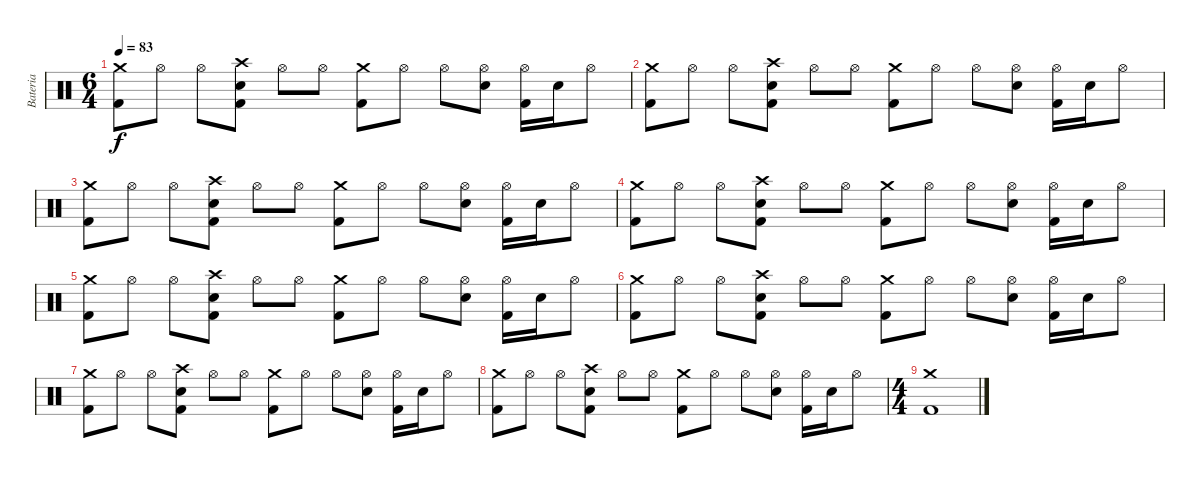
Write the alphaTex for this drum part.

\track ("Bateria" "Bateria") {instrument percussion}
\staff {score}
\articulation defaults
\ts (6 4)
\tempo 83
\clef neutral
\ks c
("Crash medium (hit)" "Kick (hit) 2").8{dy f} "Hi-Hat (open)".8 "Hi-Hat (open)".8 ("Crash high (hit)" "Snare (hit) 2" "Kick (hit) 2").8 "Hi-Hat (open)".8 "Hi-Hat (open)".8 ("Crash medium (hit)" "Kick (hit) 2").8 "Hi-Hat (open)".8 "Hi-Hat (open)".8 ("Hi-Hat (open)" "Snare (hit) 2").8 ("Hi-Hat (open)" "Kick (hit) 2").16 "Snare (hit) 2".16 "Hi-Hat (open)".8 |
("Crash medium (hit)" "Kick (hit) 2").8 "Hi-Hat (open)".8 "Hi-Hat (open)".8 ("Crash high (hit)" "Snare (hit) 2" "Kick (hit) 2").8 "Hi-Hat (open)".8 "Hi-Hat (open)".8 ("Crash medium (hit)" "Kick (hit) 2").8 "Hi-Hat (open)".8 "Hi-Hat (open)".8 ("Hi-Hat (open)" "Snare (hit) 2").8 ("Hi-Hat (open)" "Kick (hit) 2").16 "Snare (hit) 2".16 "Hi-Hat (open)".8 |
("Crash medium (hit)" "Kick (hit) 2").8 "Hi-Hat (open)".8 "Hi-Hat (open)".8 ("Crash high (hit)" "Snare (hit) 2" "Kick (hit) 2").8 "Hi-Hat (open)".8 "Hi-Hat (open)".8 ("Crash medium (hit)" "Kick (hit) 2").8 "Hi-Hat (open)".8 "Hi-Hat (open)".8 ("Hi-Hat (open)" "Snare (hit) 2").8 ("Hi-Hat (open)" "Kick (hit) 2").16 "Snare (hit) 2".16 "Hi-Hat (open)".8 |
("Crash medium (hit)" "Kick (hit) 2").8 "Hi-Hat (open)".8 "Hi-Hat (open)".8 ("Crash high (hit)" "Snare (hit) 2" "Kick (hit) 2").8 "Hi-Hat (open)".8 "Hi-Hat (open)".8 ("Crash medium (hit)" "Kick (hit) 2").8 "Hi-Hat (open)".8 "Hi-Hat (open)".8 ("Hi-Hat (open)" "Snare (hit) 2").8 ("Hi-Hat (open)" "Kick (hit) 2").16 "Snare (hit) 2".16 "Hi-Hat (open)".8 |
("Crash medium (hit)" "Kick (hit) 2").8 "Hi-Hat (open)".8 "Hi-Hat (open)".8 ("Crash high (hit)" "Snare (hit) 2" "Kick (hit) 2").8 "Hi-Hat (open)".8 "Hi-Hat (open)".8 ("Crash medium (hit)" "Kick (hit) 2").8 "Hi-Hat (open)".8 "Hi-Hat (open)".8 ("Hi-Hat (open)" "Snare (hit) 2").8 ("Hi-Hat (open)" "Kick (hit) 2").16 "Snare (hit) 2".16 "Hi-Hat (open)".8 |
("Crash medium (hit)" "Kick (hit) 2").8 "Hi-Hat (open)".8 "Hi-Hat (open)".8 ("Crash high (hit)" "Snare (hit) 2" "Kick (hit) 2").8 "Hi-Hat (open)".8 "Hi-Hat (open)".8 ("Crash medium (hit)" "Kick (hit) 2").8 "Hi-Hat (open)".8 "Hi-Hat (open)".8 ("Hi-Hat (open)" "Snare (hit) 2").8 ("Hi-Hat (open)" "Kick (hit) 2").16 "Snare (hit) 2".16 "Hi-Hat (open)".8 |
("Crash medium (hit)" "Kick (hit) 2").8 "Hi-Hat (open)".8 "Hi-Hat (open)".8 ("Crash high (hit)" "Snare (hit) 2" "Kick (hit) 2").8 "Hi-Hat (open)".8 "Hi-Hat (open)".8 ("Crash medium (hit)" "Kick (hit) 2").8 "Hi-Hat (open)".8 "Hi-Hat (open)".8 ("Hi-Hat (open)" "Snare (hit) 2").8 ("Hi-Hat (open)" "Kick (hit) 2").16 "Snare (hit) 2".16 "Hi-Hat (open)".8 |
("Crash medium (hit)" "Kick (hit) 2").8 "Hi-Hat (open)".8 "Hi-Hat (open)".8 ("Crash high (hit)" "Snare (hit) 2" "Kick (hit) 2").8 "Hi-Hat (open)".8 "Hi-Hat (open)".8 ("Crash medium (hit)" "Kick (hit) 2").8 "Hi-Hat (open)".8 "Hi-Hat (open)".8 ("Hi-Hat (open)" "Snare (hit) 2").8 ("Hi-Hat (open)" "Kick (hit) 2").16 "Snare (hit) 2".16 "Hi-Hat (open)".8 |
\ts (4 4)
("Crash medium (hit)" "Kick (hit) 2").1
